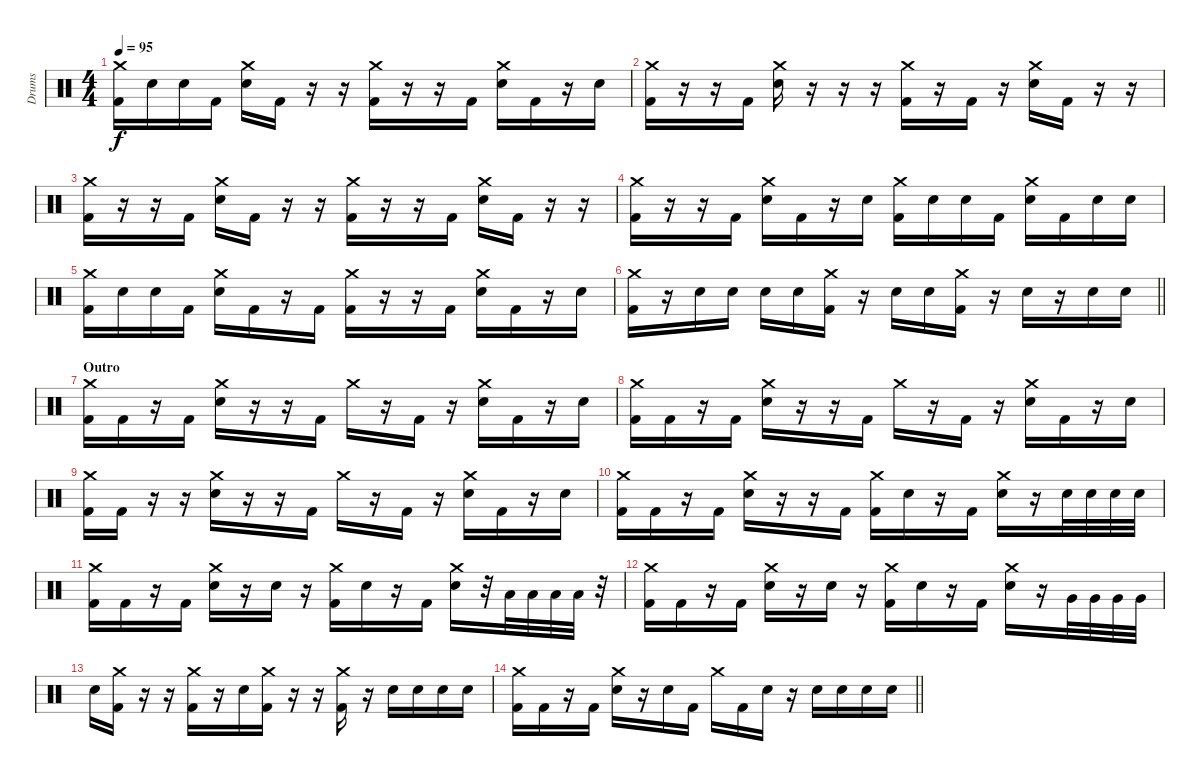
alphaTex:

\track ("Drums" "Drums") {instrument percussion}
\staff {score}
\articulation defaults
\ts (4 4)
\tempo 95
\clef neutral
\ks c
("Crash medium (hit)" "Kick (hit) 2").16{dy f} "Electric Snare (hit)".16 "Electric Snare (hit)".16 "Kick (hit) 2".16 ("Crash medium (hit)" "Electric Snare (hit)").16 "Kick (hit) 2".16 r.16 r.16 ("Crash medium (hit)" "Kick (hit) 2").16 r.16 r.16 "Kick (hit) 2".16 ("Crash medium (hit)" "Electric Snare (hit)").16 "Kick (hit) 2".16 r.16 "Electric Snare (hit)".16 |
("Crash medium (hit)" "Kick (hit) 2").16 r.16 r.16 "Kick (hit) 2".16 ("Crash medium (hit)" "Electric Snare (hit)").16 r.16 r.16 r.16 ("Crash medium (hit)" "Kick (hit) 2").16 r.16 "Kick (hit) 2".16 r.16 ("Crash medium (hit)" "Electric Snare (hit)").16 "Kick (hit) 2".16 r.16 r.16 |
("Crash medium (hit)" "Kick (hit) 2").16 r.16 r.16 "Kick (hit) 2".16 ("Crash medium (hit)" "Electric Snare (hit)").16 "Kick (hit) 2".16 r.16 r.16 ("Crash medium (hit)" "Kick (hit) 2").16 r.16 r.16 "Kick (hit) 2".16 ("Crash medium (hit)" "Electric Snare (hit)").16 "Kick (hit) 2".16 r.16 r.16 |
("Crash medium (hit)" "Kick (hit) 2").16 r.16 r.16 "Kick (hit) 2".16 ("Crash medium (hit)" "Electric Snare (hit)").16 "Kick (hit) 2".16 r.16 "Electric Snare (hit)".16 ("Crash medium (hit)" "Kick (hit) 2").16 "Electric Snare (hit)".16 "Electric Snare (hit)".16 "Kick (hit) 2".16 ("Crash medium (hit)" "Electric Snare (hit)").16 "Kick (hit) 2".16 "Electric Snare (hit)".16 "Electric Snare (hit)".16 |
("Crash medium (hit)" "Kick (hit) 2").16 "Electric Snare (hit)".16 "Electric Snare (hit)".16 "Kick (hit) 2".16 ("Crash medium (hit)" "Electric Snare (hit)").16 "Kick (hit) 2".16 r.16 "Kick (hit) 2".16 ("Crash medium (hit)" "Kick (hit) 2").16 r.16 r.16 "Kick (hit) 2".16 ("Crash medium (hit)" "Electric Snare (hit)").16 "Kick (hit) 2".16 r.16 "Electric Snare (hit)".16 |
\barLineRight lightlight
("Crash medium (hit)" "Kick (hit) 2").16 r.16 "Electric Snare (hit)".16 "Electric Snare (hit)".16 "Electric Snare (hit)".16 "Electric Snare (hit)".16 ("Crash medium (hit)" "Kick (hit) 2").16 r.16 "Electric Snare (hit)".16 "Electric Snare (hit)".16 ("Crash medium (hit)" "Kick (hit) 2").16 r.16 "Electric Snare (hit)".16 r.16 "Electric Snare (hit)".16 "Electric Snare (hit)".16 |
\section ("" "Outro")
("Crash medium (hit)" "Kick (hit) 2").16 "Kick (hit) 2".16 r.16 "Kick (hit) 2".16 ("Crash medium (hit)" "Electric Snare (hit)").16 r.16 r.16 "Kick (hit) 2".16 "Crash medium (hit)".16 r.16 "Kick (hit) 2".16 r.16 ("Crash medium (hit)" "Electric Snare (hit)").16 "Kick (hit) 2".16 r.16 "Electric Snare (hit)".16 |
("Crash medium (hit)" "Kick (hit) 2").16 "Kick (hit) 2".16 r.16 "Kick (hit) 2".16 ("Crash medium (hit)" "Electric Snare (hit)").16 r.16 r.16 "Kick (hit) 2".16 "Crash medium (hit)".16 r.16 "Kick (hit) 2".16 r.16 ("Crash medium (hit)" "Electric Snare (hit)").16 "Kick (hit) 2".16 r.16 "Electric Snare (hit)".16 |
("Crash medium (hit)" "Kick (hit) 2").16 "Kick (hit) 2".16 r.16 r.16 ("Crash medium (hit)" "Electric Snare (hit)").16 r.16 r.16 "Kick (hit) 2".16 "Crash medium (hit)".16 r.16 "Kick (hit) 2".16 r.16 ("Crash medium (hit)" "Electric Snare (hit)").16 "Kick (hit) 2".16 r.16 "Electric Snare (hit)".16 |
("Crash medium (hit)" "Kick (hit) 2").16 "Kick (hit) 2".16 r.16 "Kick (hit) 2".16 ("Crash medium (hit)" "Electric Snare (hit)").16 r.16 r.16 "Kick (hit) 2".16 ("Crash medium (hit)" "Kick (hit) 2").16 "Electric Snare (hit)".16 r.16 "Kick (hit) 2".16 ("Crash medium (hit)" "Electric Snare (hit)").16 r.16 "Electric Snare (hit)".32 "Electric Snare (hit)".32 "Electric Snare (hit)".32 "Electric Snare (hit)".32 |
("Crash medium (hit)" "Kick (hit) 2").16 "Kick (hit) 2".16 r.16 "Kick (hit) 2".16 ("Crash medium (hit)" "Electric Snare (hit)").16 r.16 "Electric Snare (hit)".16 r.16 ("Crash medium (hit)" "Kick (hit) 2").16 "Electric Snare (hit)".16 r.16 "Kick (hit) 2".16 ("Crash medium (hit)" "Electric Snare (hit)").16 r.32 "Low Tom (hit)".32 "Low Tom (hit)".32 "Low Tom (hit)".32 "Low Tom (hit)".32 r.32 |
("Crash medium (hit)" "Kick (hit) 2").16 "Kick (hit) 2".16 r.16 "Kick (hit) 2".16 ("Crash medium (hit)" "Electric Snare (hit)").16 r.16 "Electric Snare (hit)".16 r.16 ("Crash medium (hit)" "Kick (hit) 2").16 "Electric Snare (hit)".16 r.16 "Kick (hit) 2".16 ("Crash medium (hit)" "Electric Snare (hit)").16 r.16 "Very Low Tom (hit)".32 "Very Low Tom (hit)".32 "Very Low Tom (hit)".32 "Very Low Tom (hit)".32 |
"Electric Snare (hit)".16 ("Crash medium (hit)" "Kick (hit) 2").16 r.16 r.16 ("Crash medium (hit)" "Kick (hit) 2").16 r.16 "Electric Snare (hit)".16 ("Crash medium (hit)" "Kick (hit) 2").16 r.16 r.16 ("Crash medium (hit)" "Kick (hit) 2").16 r.16 "Electric Snare (hit)".16 "Electric Snare (hit)".16 "Electric Snare (hit)".16 "Electric Snare (hit)".16 |
\barLineRight lightlight
("Crash medium (hit)" "Kick (hit) 2").16 "Kick (hit) 2".16 r.16 "Kick (hit) 2".16 ("Crash medium (hit)" "Electric Snare (hit)").16 r.16 "Electric Snare (hit)".16 "Kick (hit) 2".16 "Crash medium (hit)".16 "Kick (hit) 2".16 "Electric Snare (hit)".16 r.16 "Electric Snare (hit)".16 "Electric Snare (hit)".16 "Electric Snare (hit)".16 "Electric Snare (hit)".16
